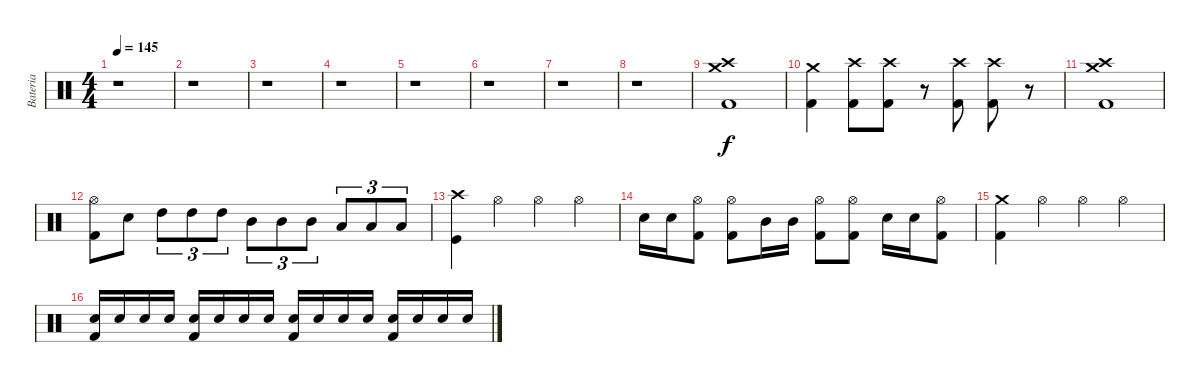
\track ("Bateria" "Bateria") {instrument percussion}
\staff {score}
\articulation defaults
\ts (4 4)
\tempo 145
\clef neutral
\ks c
r.1{dy f} |
r.1 |
r.1 |
r.1 |
r.1 |
r.1 |
r.1 |
r.1 |
("Crash high (hit)" "Kick (hit) 2" "Crash medium (hit)").1 |
("Kick (hit) 2" "Crash medium (hit)").4 ("Crash high (hit)" "Kick (hit) 2").8 ("Crash high (hit)" "Kick (hit) 2").8 r.8 ("Crash high (hit)" "Kick (hit) 2").8 ("Crash high (hit)" "Kick (hit) 2").8 r.8 |
("Crash medium (hit)" "Crash high (hit)" "Kick (hit) 2").1 |
("Hi-Hat (open)" "Kick (hit) 2").8 "Snare (hit) 2".8 "High Tom (hit)".8{tu (3 2)} "High Tom (hit)".8{tu (3 2)} "High Tom (hit)".8{tu (3 2)} "Mid Tom (hit)".8{tu (3 2)} "Mid Tom (hit)".8{tu (3 2)} "Mid Tom (hit)".8{tu (3 2)} "Low Tom (hit)".8{tu (3 2)} "Low Tom (hit)".8{tu (3 2)} "Low Tom (hit)".8{tu (3 2)} |
("Crash high (hit)" "Kick (hit)").4 "Hi-Hat (open)".4 "Hi-Hat (open)".4 "Hi-Hat (open)".4 |
"Snare (hit) 2".16 "Snare (hit) 2".16 ("Kick (hit) 2" "Hi-Hat (open)").8 ("Kick (hit) 2" "Hi-Hat (open)").8 "Mid Tom (hit)".16 "Mid Tom (hit)".16 ("Kick (hit) 2" "Hi-Hat (open)").8 ("Kick (hit) 2" "Hi-Hat (open)").8 "Snare (hit) 2".16 "Snare (hit) 2".16 ("Kick (hit) 2" "Hi-Hat (open)").8 |
("Crash medium (hit)" "Kick (hit) 2").4 "Hi-Hat (open)".4 "Hi-Hat (open)".4 "Hi-Hat (open)".4 |
("Kick (hit) 2" "Snare (hit) 2").16 "Snare (hit) 2".16 "Snare (hit) 2".16 "Snare (hit) 2".16 ("Kick (hit) 2" "Snare (hit) 2").16 "Snare (hit) 2".16 "Snare (hit) 2".16 "Snare (hit) 2".16 ("Kick (hit) 2" "Snare (hit) 2").16 "Snare (hit) 2".16 "Snare (hit) 2".16 "Snare (hit) 2".16 ("Kick (hit) 2" "Snare (hit) 2").16 "Snare (hit) 2".16 "Snare (hit) 2".16 "Snare (hit) 2".16
